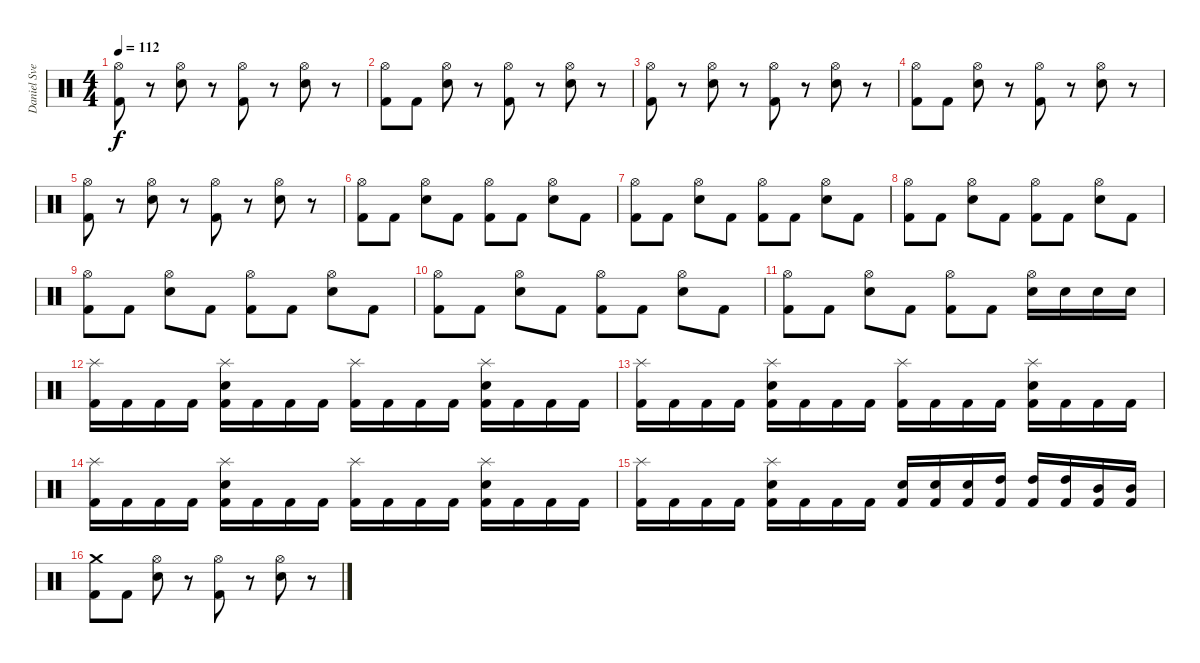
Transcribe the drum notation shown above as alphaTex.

\track ("Daniel Svensson" "Daniel Sve") {instrument percussion}
\staff {score}
\articulation defaults
\ts (4 4)
\tempo 112
\clef neutral
\ks c
("Hi-Hat (open)" "Kick (hit) 2").8{dy f} r.8 ("Hi-Hat (open)" "Snare (hit) 2").8 r.8 ("Hi-Hat (open)" "Kick (hit) 2").8 r.8 ("Hi-Hat (open)" "Snare (hit) 2").8 r.8 |
("Hi-Hat (open)" "Kick (hit) 2").8 "Kick (hit) 2".8 ("Hi-Hat (open)" "Snare (hit) 2").8 r.8 ("Hi-Hat (open)" "Kick (hit) 2").8 r.8 ("Hi-Hat (open)" "Snare (hit) 2").8 r.8 |
("Hi-Hat (open)" "Kick (hit) 2").8 r.8 ("Hi-Hat (open)" "Snare (hit) 2").8 r.8 ("Hi-Hat (open)" "Kick (hit) 2").8 r.8 ("Hi-Hat (open)" "Snare (hit) 2").8 r.8 |
("Hi-Hat (open)" "Kick (hit) 2").8 "Kick (hit) 2".8 ("Hi-Hat (open)" "Snare (hit) 2").8 r.8 ("Hi-Hat (open)" "Kick (hit) 2").8 r.8 ("Hi-Hat (open)" "Snare (hit) 2").8 r.8 |
("Hi-Hat (open)" "Kick (hit) 2").8 r.8 ("Hi-Hat (open)" "Snare (hit) 2").8 r.8 ("Hi-Hat (open)" "Kick (hit) 2").8 r.8 ("Hi-Hat (open)" "Snare (hit) 2").8 r.8 |
("Hi-Hat (open)" "Kick (hit) 2").8 "Kick (hit) 2".8 ("Hi-Hat (open)" "Snare (hit) 2").8 "Kick (hit) 2".8 ("Hi-Hat (open)" "Kick (hit) 2").8 "Kick (hit) 2".8 ("Hi-Hat (open)" "Snare (hit) 2").8 "Kick (hit) 2".8 |
("Hi-Hat (open)" "Kick (hit) 2").8 "Kick (hit) 2".8 ("Hi-Hat (open)" "Snare (hit) 2").8 "Kick (hit) 2".8 ("Hi-Hat (open)" "Kick (hit) 2").8 "Kick (hit) 2".8 ("Hi-Hat (open)" "Snare (hit) 2").8 "Kick (hit) 2".8 |
("Hi-Hat (open)" "Kick (hit) 2").8 "Kick (hit) 2".8 ("Hi-Hat (open)" "Snare (hit) 2").8 "Kick (hit) 2".8 ("Hi-Hat (open)" "Kick (hit) 2").8 "Kick (hit) 2".8 ("Hi-Hat (open)" "Snare (hit) 2").8 "Kick (hit) 2".8 |
("Hi-Hat (open)" "Kick (hit) 2").8 "Kick (hit) 2".8 ("Hi-Hat (open)" "Snare (hit) 2").8 "Kick (hit) 2".8 ("Hi-Hat (open)" "Kick (hit) 2").8 "Kick (hit) 2".8 ("Hi-Hat (open)" "Snare (hit) 2").8 "Kick (hit) 2".8 |
("Hi-Hat (open)" "Kick (hit) 2").8 "Kick (hit) 2".8 ("Hi-Hat (open)" "Snare (hit) 2").8 "Kick (hit) 2".8 ("Hi-Hat (open)" "Kick (hit) 2").8 "Kick (hit) 2".8 ("Hi-Hat (open)" "Snare (hit) 2").8 "Kick (hit) 2".8 |
("Hi-Hat (open)" "Kick (hit) 2").8 "Kick (hit) 2".8 ("Hi-Hat (open)" "Snare (hit) 2").8 "Kick (hit) 2".8 ("Hi-Hat (open)" "Kick (hit) 2").8 "Kick (hit) 2".8 ("Hi-Hat (open)" "Snare (hit) 2").16 "Snare (hit) 2".16 "Snare (hit) 2".16 "Snare (hit) 2".16 |
("Splash (hit)" "Kick (hit) 2").16 "Kick (hit) 2".16 "Kick (hit) 2".16 "Kick (hit) 2".16 ("Splash (hit)" "Snare (hit) 2" "Kick (hit) 2").16 "Kick (hit) 2".16 "Kick (hit) 2".16 "Kick (hit) 2".16 ("Splash (hit)" "Kick (hit) 2").16 "Kick (hit) 2".16 "Kick (hit) 2".16 "Kick (hit) 2".16 ("Splash (hit)" "Snare (hit) 2" "Kick (hit) 2").16 "Kick (hit) 2".16 "Kick (hit) 2".16 "Kick (hit) 2".16 |
("Splash (hit)" "Kick (hit) 2").16 "Kick (hit) 2".16 "Kick (hit) 2".16 "Kick (hit) 2".16 ("Splash (hit)" "Snare (hit) 2" "Kick (hit) 2").16 "Kick (hit) 2".16 "Kick (hit) 2".16 "Kick (hit) 2".16 ("Splash (hit)" "Kick (hit) 2").16 "Kick (hit) 2".16 "Kick (hit) 2".16 "Kick (hit) 2".16 ("Splash (hit)" "Snare (hit) 2" "Kick (hit) 2").16 "Kick (hit) 2".16 "Kick (hit) 2".16 "Kick (hit) 2".16 |
("Splash (hit)" "Kick (hit) 2").16 "Kick (hit) 2".16 "Kick (hit) 2".16 "Kick (hit) 2".16 ("Splash (hit)" "Snare (hit) 2" "Kick (hit) 2").16 "Kick (hit) 2".16 "Kick (hit) 2".16 "Kick (hit) 2".16 ("Splash (hit)" "Kick (hit) 2").16 "Kick (hit) 2".16 "Kick (hit) 2".16 "Kick (hit) 2".16 ("Splash (hit)" "Snare (hit) 2" "Kick (hit) 2").16 "Kick (hit) 2".16 "Kick (hit) 2".16 "Kick (hit) 2".16 |
("Splash (hit)" "Kick (hit) 2").16 "Kick (hit) 2".16 "Kick (hit) 2".16 "Kick (hit) 2".16 ("Splash (hit)" "Snare (hit) 2" "Kick (hit) 2").16 "Kick (hit) 2".16 "Kick (hit) 2".16 "Kick (hit) 2".16 ("Snare (hit) 2" "Kick (hit) 2").16 ("Snare (hit) 2" "Kick (hit) 2").16 ("Snare (hit) 2" "Kick (hit) 2").16 ("High Tom (hit)" "Kick (hit) 2").16 ("High Tom (hit)" "Kick (hit) 2").16 ("High Tom (hit)" "Kick (hit) 2").16 ("Mid Tom (hit)" "Kick (hit) 2").16 ("Mid Tom (hit)" "Kick (hit) 2").16 |
("Crash medium (hit)" "Kick (hit) 2").8 "Kick (hit) 2".8 ("Hi-Hat (open)" "Snare (hit) 2").8 r.8 ("Hi-Hat (open)" "Kick (hit) 2").8 r.8 ("Hi-Hat (open)" "Snare (hit) 2").8 r.8
